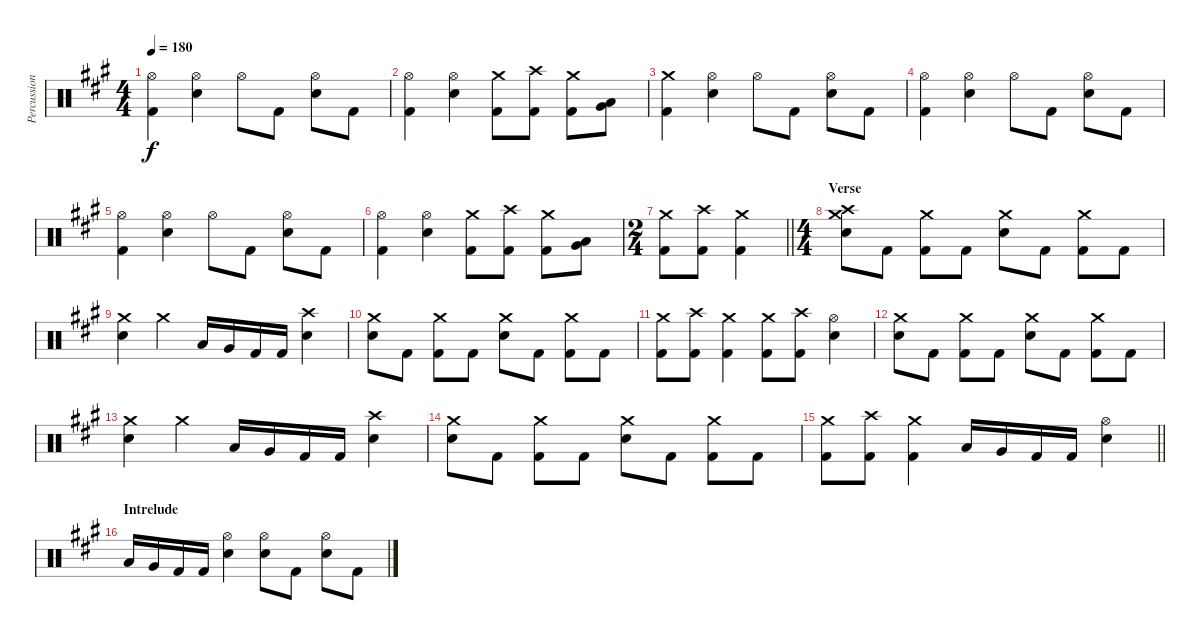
\track ("Percussion" "Percussion") {instrument percussion}
\staff {score}
\articulation defaults
\ts (4 4)
\tempo 180
\clef neutral
\ks f#minor
("Hi-Hat (open)" "Kick (hit) 2").4{dy f} ("Hi-Hat (open)" "Electric Snare (hit)").4 "Hi-Hat (open)".8 "Kick (hit) 2".8 ("Hi-Hat (open)" "Electric Snare (hit)").8 "Kick (hit) 2".8 |
("Hi-Hat (open)" "Kick (hit) 2").4 ("Hi-Hat (open)" "Electric Snare (hit)").4 ("Crash medium (hit)" "Kick (hit) 2").8 ("Crash high (hit)" "Kick (hit) 2").8 ("Crash medium (hit)" "Kick (hit) 2").8 ("Very Low Tom (hit)" "Low Floor Tom (hit)").8 |
("Crash medium (hit)" "Kick (hit) 2").4 ("Hi-Hat (open)" "Electric Snare (hit)").4 "Hi-Hat (open)".8 "Kick (hit) 2".8 ("Hi-Hat (open)" "Electric Snare (hit)").8 "Kick (hit) 2".8 |
("Hi-Hat (open)" "Kick (hit) 2").4 ("Hi-Hat (open)" "Electric Snare (hit)").4 "Hi-Hat (open)".8 "Kick (hit) 2".8 ("Hi-Hat (open)" "Electric Snare (hit)").8 "Kick (hit) 2".8 |
("Hi-Hat (open)" "Kick (hit) 2").4 ("Hi-Hat (open)" "Electric Snare (hit)").4 "Hi-Hat (open)".8 "Kick (hit) 2".8 ("Hi-Hat (open)" "Electric Snare (hit)").8 "Kick (hit) 2".8 |
("Hi-Hat (open)" "Kick (hit) 2").4 ("Hi-Hat (open)" "Electric Snare (hit)").4 ("Crash medium (hit)" "Kick (hit) 2").8 ("Crash high (hit)" "Kick (hit) 2").8 ("Crash medium (hit)" "Kick (hit) 2").8 ("Very Low Tom (hit)" "Low Floor Tom (hit)").8 |
\ts (2 4)
\barLineRight lightlight
("Crash medium (hit)" "Kick (hit) 2").8 ("Crash high (hit)" "Kick (hit) 2").8 ("Crash medium (hit)" "Kick (hit) 2").4 |
\ts (4 4)
\section ("" "Verse")
("Crash medium (hit)" "Crash high (hit)" "Electric Snare (hit)").8 "Kick (hit) 2".8 ("Crash medium (hit)" "Kick (hit) 2").8 "Kick (hit) 2".8 ("Crash medium (hit)" "Electric Snare (hit)").8 "Kick (hit) 2".8 ("Crash medium (hit)" "Kick (hit) 2").8 "Kick (hit) 2".8 |
("Crash medium (hit)" "Electric Snare (hit)").4 "Crash medium (hit)".4 "Low Tom (hit)".16 "Very Low Tom (hit)".16 "Kick (hit) 2".16 "Kick (hit) 2".16 ("Crash high (hit)" "Electric Snare (hit)").4 |
("Crash medium (hit)" "Electric Snare (hit)").8 "Kick (hit) 2".8 ("Crash medium (hit)" "Kick (hit) 2").8 "Kick (hit) 2".8 ("Crash medium (hit)" "Electric Snare (hit)").8 "Kick (hit) 2".8 ("Crash medium (hit)" "Kick (hit) 2").8 "Kick (hit) 2".8 |
("Crash medium (hit)" "Kick (hit) 2").8 ("Crash high (hit)" "Kick (hit) 2").8 ("Crash medium (hit)" "Kick (hit) 2").4 ("Crash medium (hit)" "Kick (hit) 2").8 ("Crash high (hit)" "Kick (hit) 2").8 ("Hi-Hat (open)" "Electric Snare (hit)").4 |
("Crash medium (hit)" "Electric Snare (hit)").8 "Kick (hit) 2".8 ("Crash medium (hit)" "Kick (hit) 2").8 "Kick (hit) 2".8 ("Crash medium (hit)" "Electric Snare (hit)").8 "Kick (hit) 2".8 ("Crash medium (hit)" "Kick (hit) 2").8 "Kick (hit) 2".8 |
("Crash medium (hit)" "Electric Snare (hit)").4 "Crash medium (hit)".4 "Low Tom (hit)".16 "Very Low Tom (hit)".16 "Kick (hit) 2".16 "Kick (hit) 2".16 ("Crash high (hit)" "Electric Snare (hit)").4 |
("Crash medium (hit)" "Electric Snare (hit)").8 "Kick (hit) 2".8 ("Crash medium (hit)" "Kick (hit) 2").8 "Kick (hit) 2".8 ("Crash medium (hit)" "Electric Snare (hit)").8 "Kick (hit) 2".8 ("Crash medium (hit)" "Kick (hit) 2").8 "Kick (hit) 2".8 |
\barLineRight lightlight
("Crash medium (hit)" "Kick (hit) 2").8 ("Crash high (hit)" "Kick (hit) 2").8 ("Crash medium (hit)" "Kick (hit) 2").4 "Low Tom (hit)".16 "Very Low Tom (hit)".16 "Kick (hit) 2".16 "Kick (hit) 2".16 ("Hi-Hat (open)" "Electric Snare (hit)").4 |
\section ("" "Intrelude")
"Low Tom (hit)".16 "Very Low Tom (hit)".16 "Kick (hit) 2".16 "Kick (hit) 2".16 ("Hi-Hat (open)" "Electric Snare (hit)").4 ("Hi-Hat (open)" "Electric Snare (hit)").8 "Kick (hit) 2".8 ("Hi-Hat (open)" "Electric Snare (hit)").8 "Kick (hit) 2".8
